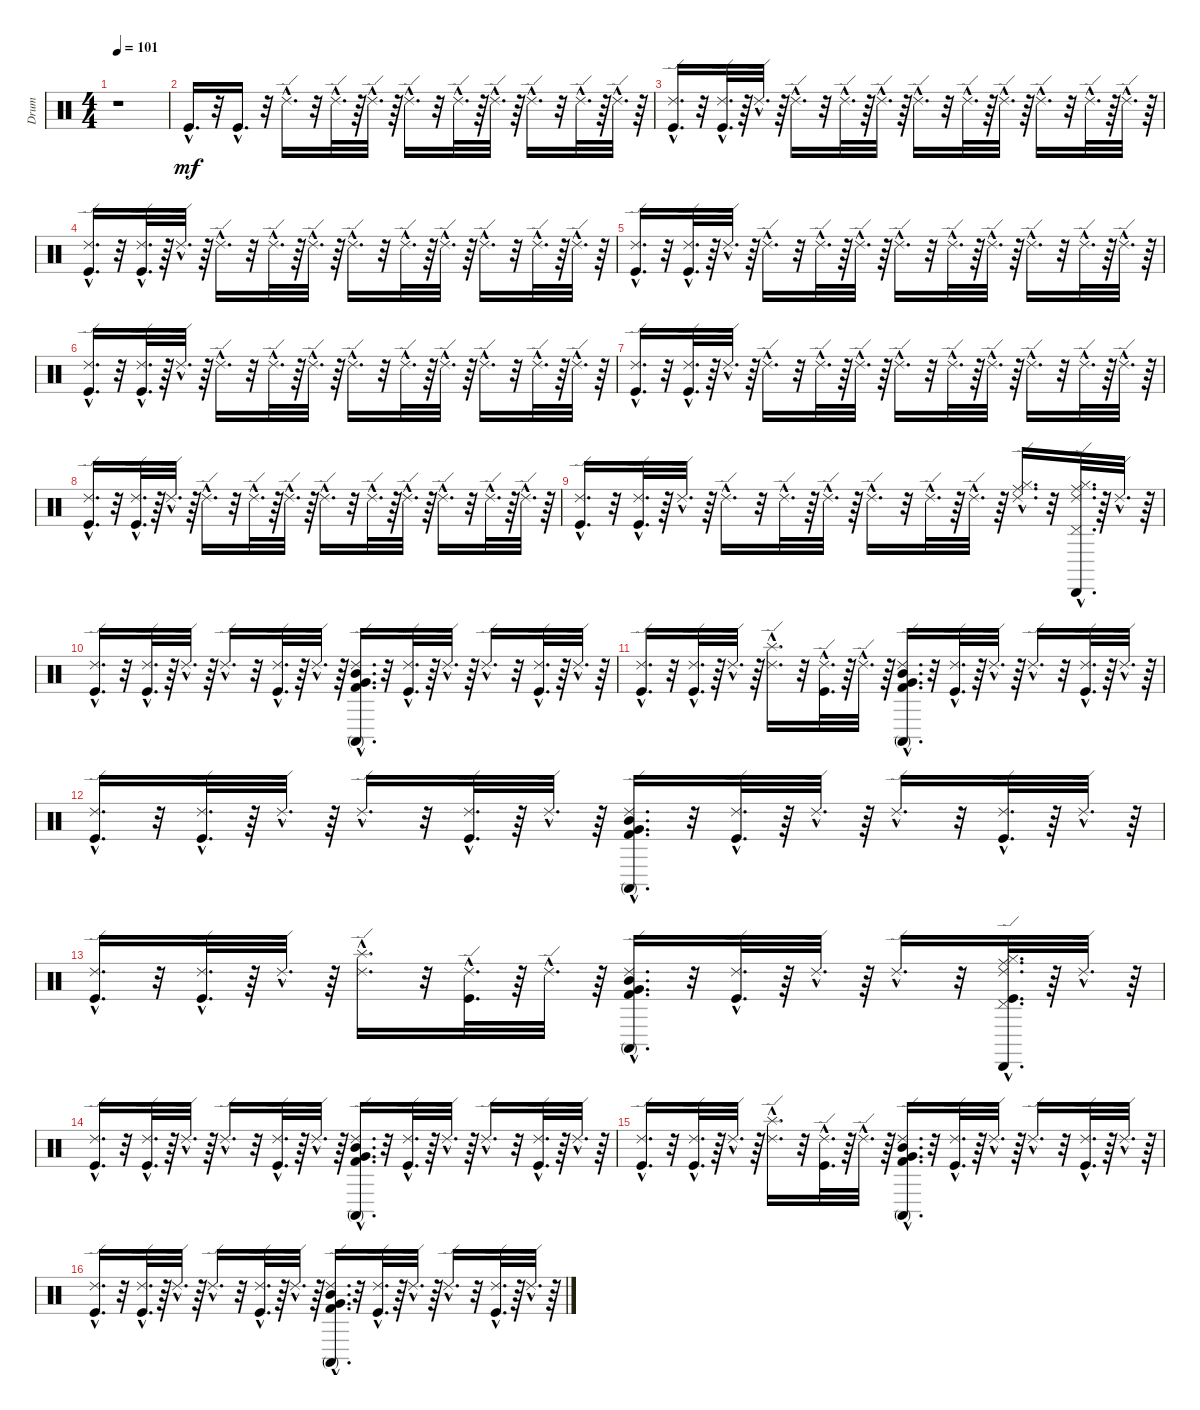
\track ("Drum" "Drum") {instrument percussion}
\staff {score}
\articulation defaults
\ts (4 4)
\tempo 101
\clef neutral
\ks c
r.1{dy mf} |
"Kick (hit)"{hac}.16{d} r.32 "Kick (hit)"{hac}.16{d} r.32 "Ride (edge) 2"{hac}.16{d} r.32 "Ride (edge) 2"{hac}.32{d} r.64 "Ride (edge) 2"{hac}.32{d} r.64 "Ride (edge) 2"{hac}.16{d} r.32 "Ride (edge) 2"{hac}.32{d} r.64 "Ride (edge) 2"{hac}.32{d} r.64 "Ride (edge) 2"{hac}.16{d} r.32 "Ride (edge) 2"{hac}.32{d} r.64 "Ride (edge) 2"{hac}.32{d} r.64 |
("Kick (hit)"{hac} "Ride (edge) 2"{hac}).16{d} r.32 ("Kick (hit)"{hac} "Ride (edge) 2"{hac}).32{d} r.64 "Ride (edge) 2"{hac}.32{d} r.64 "Ride (edge) 2"{hac}.16{d} r.32 "Ride (edge) 2"{hac}.32{d} r.64 "Ride (edge) 2"{hac}.32{d} r.64 "Ride (edge) 2"{hac}.16{d} r.32 "Ride (edge) 2"{hac}.32{d} r.64 "Ride (edge) 2"{hac}.32{d} r.64 "Ride (edge) 2"{hac}.16{d} r.32 "Ride (edge) 2"{hac}.32{d} r.64 "Ride (edge) 2"{hac}.32{d} r.64 |
("Ride (edge) 2"{hac} "Kick (hit)"{hac}).16{d} r.32 ("Ride (edge) 2"{hac} "Kick (hit)"{hac}).32{d} r.64 "Ride (edge) 2"{hac}.32{d} r.64 "Ride (edge) 2"{hac}.16{d} r.32 "Ride (edge) 2"{hac}.32{d} r.64 "Ride (edge) 2"{hac}.32{d} r.64 "Ride (edge) 2"{hac}.16{d} r.32 "Ride (edge) 2"{hac}.32{d} r.64 "Ride (edge) 2"{hac}.32{d} r.64 "Ride (edge) 2"{hac}.16{d} r.32 "Ride (edge) 2"{hac}.32{d} r.64 "Ride (edge) 2"{hac}.32{d} r.64 |
("Ride (edge) 2"{hac} "Kick (hit)"{hac}).16{d} r.32 ("Ride (edge) 2"{hac} "Kick (hit)"{hac}).32{d} r.64 "Ride (edge) 2"{hac}.32{d} r.64 "Ride (edge) 2"{hac}.16{d} r.32 "Ride (edge) 2"{hac}.32{d} r.64 "Ride (edge) 2"{hac}.32{d} r.64 "Ride (edge) 2"{hac}.16{d} r.32 "Ride (edge) 2"{hac}.32{d} r.64 "Ride (edge) 2"{hac}.32{d} r.64 "Ride (edge) 2"{hac}.16{d} r.32 "Ride (edge) 2"{hac}.32{d} r.64 "Ride (edge) 2"{hac}.32{d} r.64 |
("Ride (edge) 2"{hac} "Kick (hit)"{hac}).16{d} r.32 ("Ride (edge) 2"{hac} "Kick (hit)"{hac}).32{d} r.64 "Ride (edge) 2"{hac}.32{d} r.64 "Ride (edge) 2"{hac}.16{d} r.32 "Ride (edge) 2"{hac}.32{d} r.64 "Ride (edge) 2"{hac}.32{d} r.64 "Ride (edge) 2"{hac}.16{d} r.32 "Ride (edge) 2"{hac}.32{d} r.64 "Ride (edge) 2"{hac}.32{d} r.64 "Ride (edge) 2"{hac}.16{d} r.32 "Ride (edge) 2"{hac}.32{d} r.64 "Ride (edge) 2"{hac}.32{d} r.64 |
("Ride (edge) 2"{hac} "Kick (hit)"{hac}).16{d} r.32 ("Ride (edge) 2"{hac} "Kick (hit)"{hac}).32{d} r.64 "Ride (edge) 2"{hac}.32{d} r.64 "Ride (edge) 2"{hac}.16{d} r.32 "Ride (edge) 2"{hac}.32{d} r.64 "Ride (edge) 2"{hac}.32{d} r.64 "Ride (edge) 2"{hac}.16{d} r.32 "Ride (edge) 2"{hac}.32{d} r.64 "Ride (edge) 2"{hac}.32{d} r.64 "Ride (edge) 2"{hac}.16{d} r.32 "Ride (edge) 2"{hac}.32{d} r.64 "Ride (edge) 2"{hac}.32{d} r.64 |
("Ride (edge) 2"{hac} "Kick (hit)"{hac}).16{d} r.32 ("Ride (edge) 2"{hac} "Kick (hit)"{hac}).32{d} r.64 "Ride (edge) 2"{hac}.32{d} r.64 "Ride (edge) 2"{hac}.16{d} r.32 "Ride (edge) 2"{hac}.32{d} r.64 "Ride (edge) 2"{hac}.32{d} r.64 "Ride (edge) 2"{hac}.16{d} r.32 "Ride (edge) 2"{hac}.32{d} r.64 "Ride (edge) 2"{hac}.32{d} r.64 "Ride (edge) 2"{hac}.16{d} r.32 "Ride (edge) 2"{hac}.32{d} r.64 "Ride (edge) 2"{hac}.32{d} r.64 |
("Ride (edge) 2"{hac} "Kick (hit)"{hac}).16{d} r.32 ("Ride (edge) 2"{hac} "Kick (hit)"{hac}).32{d} r.64 "Ride (edge) 2"{hac}.32{d} r.64 "Ride (edge) 2"{hac}.16{d} r.32 "Ride (edge) 2"{hac}.32{d} r.64 "Ride (edge) 2"{hac}.32{d} r.64 "Ride (edge) 2"{hac}.16{d} r.32 "Ride (edge) 2"{hac}.32{d} r.64 "Ride (edge) 2"{hac}.32{d} r.64 ("Hi-Hat (closed)"{hac} "Ride (middle)"{hac} "Ride (edge) 2"{hac}).16{d} r.32 ("Cabasa (hit)"{hac} "Hi-Hat (closed)"{hac} "Ride (middle)"{hac} "Pedal Hi-Hat (hit)"{hac} "Ride (edge) 2"{hac}).32{d} r.64 "Ride (edge) 2"{hac}.32{d} r.64 |
("Kick (hit)"{hac} "Ride (edge) 2"{hac}).16{d} r.32 ("Kick (hit)"{hac} "Ride (edge) 2"{hac}).32{d} r.64 "Ride (edge) 2"{hac}.32{d} r.64 "Ride (edge) 2"{hac}.16{d} r.32 ("Ride (edge) 2"{hac} "Kick (hit)"{hac}).32{d} r.64 "Ride (edge) 2"{hac}.32{d} r.64 ("Conga high (mute)"{hac} "Mid Tom (hit)"{hac} "Very Low Tom (hit)"{hac} "Kick (hit) 2"{hac} "Ride (edge) 2"{hac}).16{d} r.32 ("Kick (hit)"{hac} "Ride (edge) 2"{hac}).32{d} r.64 "Ride (edge) 2"{hac}.32{d} r.64 "Ride (edge) 2"{hac}.16{d} r.32 ("Kick (hit)"{hac} "Ride (edge) 2"{hac}).32{d} r.64 "Ride (edge) 2"{hac}.32{d} r.64 |
("Ride (edge) 2"{hac} "Kick (hit)"{hac}).16{d} r.32 ("Ride (edge) 2"{hac} "Kick (hit)"{hac}).32{d} r.64 "Ride (edge) 2"{hac}.32{d} r.64 ("Splash (hit)"{hac} "Ride (edge) 2"{hac}).16{d} r.32 ("Kick (hit)"{hac} "Ride (edge) 2"{hac}).32{d} r.64 "Ride (edge) 2"{hac}.32{d} r.64 ("Ride (edge) 2"{hac} "Kick (hit) 2"{hac} "Very Low Tom (hit)"{hac} "Mid Tom (hit)"{hac} "Conga high (mute)"{hac}).16{d} r.32 ("Ride (edge) 2"{hac} "Kick (hit)"{hac}).32{d} r.64 "Ride (edge) 2"{hac}.32{d} r.64 "Ride (edge) 2"{hac}.16{d} r.32 ("Ride (edge) 2"{hac} "Kick (hit)"{hac}).32{d} r.64 "Ride (edge) 2"{hac}.32{d} r.64 |
("Ride (edge) 2"{hac} "Kick (hit)"{hac}).16{d} r.32 ("Ride (edge) 2"{hac} "Kick (hit)"{hac}).32{d} r.64 "Ride (edge) 2"{hac}.32{d} r.64 "Ride (edge) 2"{hac}.16{d} r.32 ("Kick (hit)"{hac} "Ride (edge) 2"{hac}).32{d} r.64 "Ride (edge) 2"{hac}.32{d} r.64 ("Ride (edge) 2"{hac} "Kick (hit) 2"{hac} "Very Low Tom (hit)"{hac} "Mid Tom (hit)"{hac} "Conga high (mute)"{hac}).16{d} r.32 ("Ride (edge) 2"{hac} "Kick (hit)"{hac}).32{d} r.64 "Ride (edge) 2"{hac}.32{d} r.64 "Ride (edge) 2"{hac}.16{d} r.32 ("Ride (edge) 2"{hac} "Kick (hit)"{hac}).32{d} r.64 "Ride (edge) 2"{hac}.32{d} r.64 |
("Ride (edge) 2"{hac} "Kick (hit)"{hac}).16{d} r.32 ("Ride (edge) 2"{hac} "Kick (hit)"{hac}).32{d} r.64 "Ride (edge) 2"{hac}.32{d} r.64 ("Splash (hit)"{hac} "Ride (edge) 2"{hac}).16{d} r.32 ("Kick (hit)"{hac} "Ride (edge) 2"{hac}).32{d} r.64 "Ride (edge) 2"{hac}.32{d} r.64 ("Ride (edge) 2"{hac} "Kick (hit) 2"{hac} "Very Low Tom (hit)"{hac} "Mid Tom (hit)"{hac} "Conga high (mute)"{hac}).16{d} r.32 ("Ride (edge) 2"{hac} "Kick (hit)"{hac}).32{d} r.64 "Ride (edge) 2"{hac}.32{d} r.64 "Ride (edge) 2"{hac}.16{d} r.32 ("Cabasa (hit)"{hac} "Hi-Hat (closed)"{hac} "Pedal Hi-Hat (hit)"{hac} "Ride (middle)"{hac} "Ride (edge) 2"{hac} "Kick (hit)"{hac}).32{d} r.64 "Ride (edge) 2"{hac}.32{d} r.64 |
("Ride (edge) 2"{hac} "Kick (hit)"{hac}).16{d} r.32 ("Ride (edge) 2"{hac} "Kick (hit)"{hac}).32{d} r.64 "Ride (edge) 2"{hac}.32{d} r.64 "Ride (edge) 2"{hac}.16{d} r.32 ("Kick (hit)"{hac} "Ride (edge) 2"{hac}).32{d} r.64 "Ride (edge) 2"{hac}.32{d} r.64 ("Ride (edge) 2"{hac} "Kick (hit) 2"{hac} "Very Low Tom (hit)"{hac} "Mid Tom (hit)"{hac} "Conga high (mute)"{hac}).16{d} r.32 ("Ride (edge) 2"{hac} "Kick (hit)"{hac}).32{d} r.64 "Ride (edge) 2"{hac}.32{d} r.64 "Ride (edge) 2"{hac}.16{d} r.32 ("Ride (edge) 2"{hac} "Kick (hit)"{hac}).32{d} r.64 "Ride (edge) 2"{hac}.32{d} r.64 |
("Kick (hit)"{hac} "Ride (edge) 2"{hac}).16{d} r.32 ("Kick (hit)"{hac} "Ride (edge) 2"{hac}).32{d} r.64 "Ride (edge) 2"{hac}.32{d} r.64 ("Ride (edge) 2"{hac} "Splash (hit)"{hac}).16{d} r.32 ("Ride (edge) 2"{hac} "Kick (hit)"{hac}).32{d} r.64 "Ride (edge) 2"{hac}.32{d} r.64 ("Conga high (mute)"{hac} "Mid Tom (hit)"{hac} "Very Low Tom (hit)"{hac} "Kick (hit) 2"{hac} "Ride (edge) 2"{hac}).16{d} r.32 ("Kick (hit)"{hac} "Ride (edge) 2"{hac}).32{d} r.64 "Ride (edge) 2"{hac}.32{d} r.64 "Ride (edge) 2"{hac}.16{d} r.32 ("Kick (hit)"{hac} "Ride (edge) 2"{hac}).32{d} r.64 "Ride (edge) 2"{hac}.32{d} r.64 |
("Kick (hit)"{hac} "Ride (edge) 2"{hac}).16{d} r.32 ("Kick (hit)"{hac} "Ride (edge) 2"{hac}).32{d} r.64 "Ride (edge) 2"{hac}.32{d} r.64 "Ride (edge) 2"{hac}.16{d} r.32 ("Ride (edge) 2"{hac} "Kick (hit)"{hac}).32{d} r.64 "Ride (edge) 2"{hac}.32{d} r.64 ("Conga high (mute)"{hac} "Mid Tom (hit)"{hac} "Very Low Tom (hit)"{hac} "Kick (hit) 2"{hac} "Ride (edge) 2"{hac}).16{d} r.32 ("Kick (hit)"{hac} "Ride (edge) 2"{hac}).32{d} r.64 "Ride (edge) 2"{hac}.32{d} r.64 "Ride (edge) 2"{hac}.16{d} r.32 ("Kick (hit)"{hac} "Ride (edge) 2"{hac}).32{d} r.64 "Ride (edge) 2"{hac}.32{d} r.64
